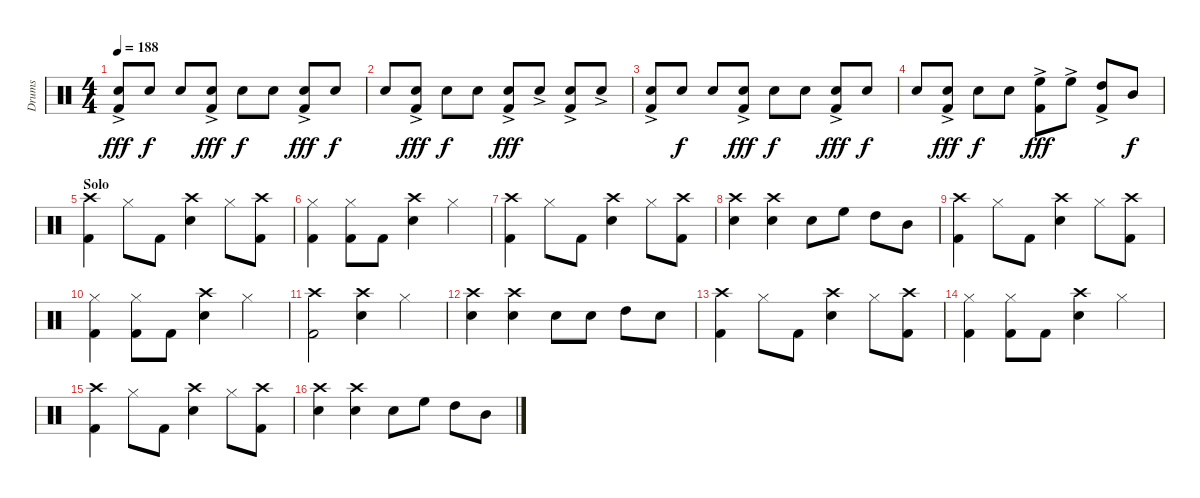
\track ("Drums" "Drums") {instrument percussion}
\staff {score}
\articulation defaults
\ts (4 4)
\tempo 188
\clef neutral
\ks c
("Kick (hit) 2" "Snare (hit) 2"{ac}).8{dy fff} "Snare (hit) 2".8{dy f} "Snare (hit) 2".8 ("Kick (hit) 2" "Snare (hit) 2"{ac}).8{dy fff} "Snare (hit) 2".8{dy f} "Snare (hit) 2".8 ("Kick (hit) 2" "Snare (hit) 2"{ac}).8{dy fff} "Snare (hit) 2".8{dy f} |
"Snare (hit) 2".8 ("Kick (hit) 2" "Snare (hit) 2"{ac}).8{dy fff} "Snare (hit) 2".8{dy f} "Snare (hit) 2".8 ("Kick (hit) 2" "Snare (hit) 2"{ac}).8{dy fff} "Snare (hit) 2"{ac}.8 ("Kick (hit) 2" "Snare (hit) 2"{ac}).8 "Snare (hit) 2"{ac}.8 |
("Kick (hit) 2" "Snare (hit) 2"{ac}).8 "Snare (hit) 2".8{dy f} "Snare (hit) 2".8 ("Kick (hit) 2" "Snare (hit) 2"{ac}).8{dy fff} "Snare (hit) 2".8{dy f} "Snare (hit) 2".8 ("Kick (hit) 2" "Snare (hit) 2"{ac}).8{dy fff} "Snare (hit) 2".8{dy f} |
"Snare (hit) 2".8 ("Kick (hit) 2" "Snare (hit) 2"{ac}).8{dy fff} "Snare (hit) 2".8{dy f} "Snare (hit) 2".8 ("Kick (hit) 2" "High Floor Tom (hit)"{ac}).8{dy fff} "High Floor Tom (hit)"{ac}.8 ("Kick (hit) 2" "High Tom (hit)"{ac}).8 "Mid Tom (hit)".8{dy f} |
\section ("" "Solo")
("Crash high (hit)" "Kick (hit) 2").4 "Hi-Hat (closed)".8 "Kick (hit) 2".8 ("Crash high (hit)" "Snare (hit) 2").4 "Hi-Hat (closed)".8 ("Crash high (hit)" "Kick (hit) 2").8 |
("Hi-Hat (closed)" "Kick (hit) 2").4 ("Hi-Hat (closed)" "Kick (hit) 2").8 "Kick (hit) 2".8 ("Crash high (hit)" "Snare (hit) 2").4 "Hi-Hat (closed)".4 |
("Crash high (hit)" "Kick (hit) 2").4 "Hi-Hat (closed)".8 "Kick (hit) 2".8 ("Crash high (hit)" "Snare (hit) 2").4 "Hi-Hat (closed)".8 ("Crash high (hit)" "Kick (hit) 2").8 |
("Crash high (hit)" "Snare (hit) 2").4 ("Crash high (hit)" "Snare (hit) 2").4 "Snare (hit) 2".8 "High Floor Tom (hit)".8 "High Tom (hit)".8 "Mid Tom (hit)".8 |
("Crash high (hit)" "Kick (hit) 2").4 "Hi-Hat (closed)".8 "Kick (hit) 2".8 ("Crash high (hit)" "Snare (hit) 2").4 "Hi-Hat (closed)".8 ("Crash high (hit)" "Kick (hit) 2").8 |
("Hi-Hat (closed)" "Kick (hit) 2").4 ("Hi-Hat (closed)" "Kick (hit) 2").8 "Kick (hit) 2".8 ("Crash high (hit)" "Snare (hit) 2").4 "Hi-Hat (closed)".4 |
("Crash high (hit)" "Kick (hit) 2").2 ("Crash high (hit)" "Snare (hit) 2").4 "Hi-Hat (closed)".4 |
("Crash high (hit)" "Snare (hit) 2").4 ("Crash high (hit)" "Snare (hit) 2").4 "Snare (hit) 2".8 "Snare (hit) 2".8 "High Tom (hit)".8 "Snare (hit) 2".8 |
("Crash high (hit)" "Kick (hit) 2").4 "Hi-Hat (closed)".8 "Kick (hit) 2".8 ("Crash high (hit)" "Snare (hit) 2").4 "Hi-Hat (closed)".8 ("Crash high (hit)" "Kick (hit) 2").8 |
("Hi-Hat (closed)" "Kick (hit) 2").4 ("Hi-Hat (closed)" "Kick (hit) 2").8 "Kick (hit) 2".8 ("Crash high (hit)" "Snare (hit) 2").4 "Hi-Hat (closed)".4 |
("Crash high (hit)" "Kick (hit) 2").4 "Hi-Hat (closed)".8 "Kick (hit) 2".8 ("Crash high (hit)" "Snare (hit) 2").4 "Hi-Hat (closed)".8 ("Crash high (hit)" "Kick (hit) 2").8 |
("Crash high (hit)" "Snare (hit) 2").4 ("Crash high (hit)" "Snare (hit) 2").4 "Snare (hit) 2".8 "High Floor Tom (hit)".8 "High Tom (hit)".8 "Mid Tom (hit)".8
